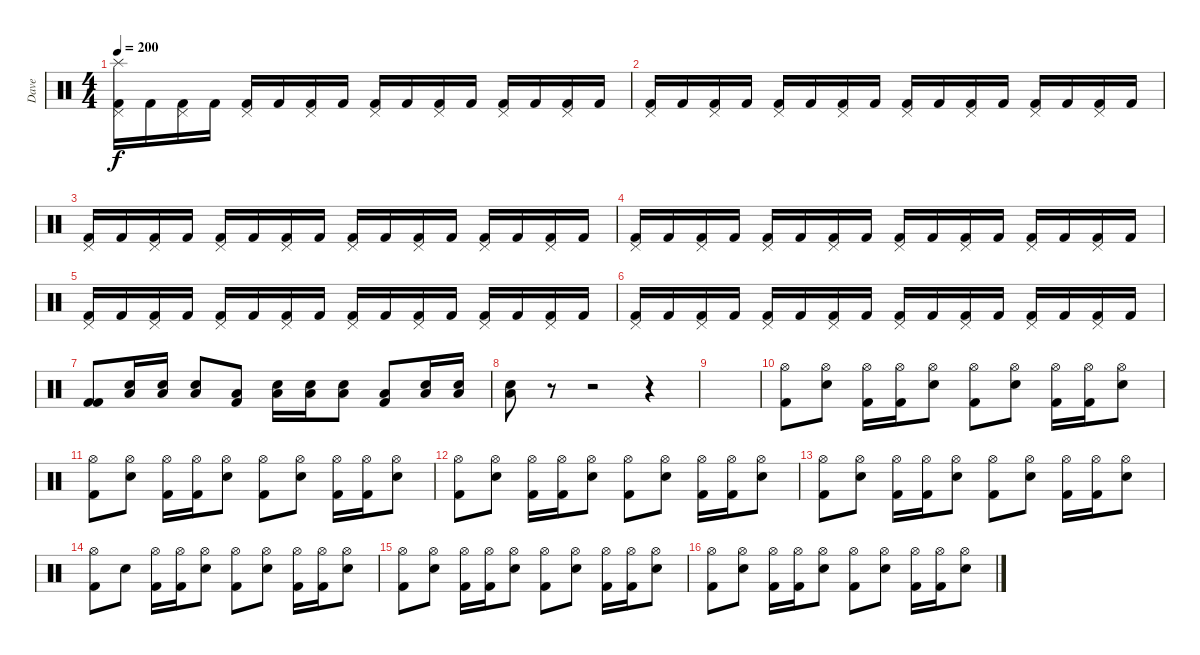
\track ("Dave" "Dave") {instrument percussion}
\staff {score}
\articulation defaults
\ts (4 4)
\tempo 200
\clef neutral
\ks c
("Splash (hit)" "Pedal Hi-Hat (hit)" "Kick (hit) 2").16{dy f} "Kick (hit) 2".16 ("Pedal Hi-Hat (hit)" "Kick (hit) 2").16 "Kick (hit) 2".16 ("Pedal Hi-Hat (hit)" "Kick (hit) 2").16 "Kick (hit) 2".16 ("Pedal Hi-Hat (hit)" "Kick (hit) 2").16 "Kick (hit) 2".16 ("Pedal Hi-Hat (hit)" "Kick (hit) 2").16 "Kick (hit) 2".16 ("Pedal Hi-Hat (hit)" "Kick (hit) 2").16 "Kick (hit) 2".16 ("Pedal Hi-Hat (hit)" "Kick (hit) 2").16 "Kick (hit) 2".16 ("Pedal Hi-Hat (hit)" "Kick (hit) 2").16 "Kick (hit) 2".16 |
("Pedal Hi-Hat (hit)" "Kick (hit) 2").16 "Kick (hit) 2".16 ("Pedal Hi-Hat (hit)" "Kick (hit) 2").16 "Kick (hit) 2".16 ("Pedal Hi-Hat (hit)" "Kick (hit) 2").16 "Kick (hit) 2".16 ("Pedal Hi-Hat (hit)" "Kick (hit) 2").16 "Kick (hit) 2".16 ("Pedal Hi-Hat (hit)" "Kick (hit) 2").16 "Kick (hit) 2".16 ("Pedal Hi-Hat (hit)" "Kick (hit) 2").16 "Kick (hit) 2".16 ("Pedal Hi-Hat (hit)" "Kick (hit) 2").16 "Kick (hit) 2".16 ("Pedal Hi-Hat (hit)" "Kick (hit) 2").16 "Kick (hit) 2".16 |
("Pedal Hi-Hat (hit)" "Kick (hit) 2").16 "Kick (hit) 2".16 ("Pedal Hi-Hat (hit)" "Kick (hit) 2").16 "Kick (hit) 2".16 ("Pedal Hi-Hat (hit)" "Kick (hit) 2").16 "Kick (hit) 2".16 ("Pedal Hi-Hat (hit)" "Kick (hit) 2").16 "Kick (hit) 2".16 ("Pedal Hi-Hat (hit)" "Kick (hit) 2").16 "Kick (hit) 2".16 ("Pedal Hi-Hat (hit)" "Kick (hit) 2").16 "Kick (hit) 2".16 ("Pedal Hi-Hat (hit)" "Kick (hit) 2").16 "Kick (hit) 2".16 ("Pedal Hi-Hat (hit)" "Kick (hit) 2").16 "Kick (hit) 2".16 |
("Pedal Hi-Hat (hit)" "Kick (hit) 2").16 "Kick (hit) 2".16 ("Pedal Hi-Hat (hit)" "Kick (hit) 2").16 "Kick (hit) 2".16 ("Pedal Hi-Hat (hit)" "Kick (hit) 2").16 "Kick (hit) 2".16 ("Pedal Hi-Hat (hit)" "Kick (hit) 2").16 "Kick (hit) 2".16 ("Pedal Hi-Hat (hit)" "Kick (hit) 2").16 "Kick (hit) 2".16 ("Pedal Hi-Hat (hit)" "Kick (hit) 2").16 "Kick (hit) 2".16 ("Pedal Hi-Hat (hit)" "Kick (hit) 2").16 "Kick (hit) 2".16 ("Pedal Hi-Hat (hit)" "Kick (hit) 2").16 "Kick (hit) 2".16 |
("Pedal Hi-Hat (hit)" "Kick (hit) 2").16 "Kick (hit) 2".16 ("Pedal Hi-Hat (hit)" "Kick (hit) 2").16 "Kick (hit) 2".16 ("Pedal Hi-Hat (hit)" "Kick (hit) 2").16 "Kick (hit) 2".16 ("Pedal Hi-Hat (hit)" "Kick (hit) 2").16 "Kick (hit) 2".16 ("Pedal Hi-Hat (hit)" "Kick (hit) 2").16 "Kick (hit) 2".16 ("Pedal Hi-Hat (hit)" "Kick (hit) 2").16 "Kick (hit) 2".16 ("Pedal Hi-Hat (hit)" "Kick (hit) 2").16 "Kick (hit) 2".16 ("Pedal Hi-Hat (hit)" "Kick (hit) 2").16 "Kick (hit) 2".16 |
("Pedal Hi-Hat (hit)" "Kick (hit) 2").16 "Kick (hit) 2".16 ("Pedal Hi-Hat (hit)" "Kick (hit) 2").16 "Kick (hit) 2".16 ("Pedal Hi-Hat (hit)" "Kick (hit) 2").16 "Kick (hit) 2".16 ("Pedal Hi-Hat (hit)" "Kick (hit) 2").16 "Kick (hit) 2".16 ("Pedal Hi-Hat (hit)" "Kick (hit) 2").16 "Kick (hit) 2".16 ("Pedal Hi-Hat (hit)" "Kick (hit) 2").16 "Kick (hit) 2".16 ("Pedal Hi-Hat (hit)" "Kick (hit) 2").16 "Kick (hit) 2".16 ("Pedal Hi-Hat (hit)" "Kick (hit) 2").16 "Kick (hit) 2".16 |
("Kick (hit) 2" "Kick (hit) 2").8 ("Snare (hit) 2" "Low Floor Tom (hit)").16 ("Snare (hit) 2" "Low Floor Tom (hit)").16 ("Snare (hit) 2" "Low Floor Tom (hit)").8 ("Kick (hit) 2" "Low Floor Tom (hit)").8 ("Snare (hit) 2" "Low Floor Tom (hit)").16 ("Snare (hit) 2" "Low Floor Tom (hit)").16 ("Snare (hit) 2" "Low Floor Tom (hit)").8 ("Kick (hit) 2" "Low Floor Tom (hit)").8 ("Snare (hit) 2" "Low Floor Tom (hit)").16 ("Snare (hit) 2" "Low Floor Tom (hit)").16 |
("Snare (hit) 2" "Low Floor Tom (hit)").8 r.8 r.2 r.4 |
|
\section ("" "")
("Hi-Hat (open)" "Kick (hit) 2").8 ("Hi-Hat (open)" "Snare (hit) 2").8 ("Hi-Hat (open)" "Kick (hit) 2").16 ("Hi-Hat (open)" "Kick (hit) 2").16 ("Hi-Hat (open)" "Snare (hit) 2").8 ("Hi-Hat (open)" "Kick (hit) 2").8 ("Hi-Hat (open)" "Snare (hit) 2").8 ("Hi-Hat (open)" "Kick (hit) 2").16 ("Hi-Hat (open)" "Kick (hit) 2").16 ("Hi-Hat (open)" "Snare (hit) 2").8 |
("Hi-Hat (open)" "Kick (hit) 2").8 ("Hi-Hat (open)" "Snare (hit) 2").8 ("Hi-Hat (open)" "Kick (hit) 2").16 ("Hi-Hat (open)" "Kick (hit) 2").16 ("Hi-Hat (open)" "Snare (hit) 2").8 ("Hi-Hat (open)" "Kick (hit) 2").8 ("Hi-Hat (open)" "Snare (hit) 2").8 ("Hi-Hat (open)" "Kick (hit) 2").16 ("Hi-Hat (open)" "Kick (hit) 2").16 ("Hi-Hat (open)" "Snare (hit) 2").8 |
("Hi-Hat (open)" "Kick (hit) 2").8 ("Hi-Hat (open)" "Snare (hit) 2").8 ("Hi-Hat (open)" "Kick (hit) 2").16 ("Hi-Hat (open)" "Kick (hit) 2").16 ("Hi-Hat (open)" "Snare (hit) 2").8 ("Hi-Hat (open)" "Kick (hit) 2").8 ("Hi-Hat (open)" "Snare (hit) 2").8 ("Hi-Hat (open)" "Kick (hit) 2").16 ("Hi-Hat (open)" "Kick (hit) 2").16 ("Hi-Hat (open)" "Snare (hit) 2").8 |
("Hi-Hat (open)" "Kick (hit) 2").8 ("Hi-Hat (open)" "Snare (hit) 2").8 ("Hi-Hat (open)" "Kick (hit) 2").16 ("Hi-Hat (open)" "Kick (hit) 2").16 ("Hi-Hat (open)" "Snare (hit) 2").8 ("Hi-Hat (open)" "Kick (hit) 2").8 ("Hi-Hat (open)" "Snare (hit) 2").8 ("Hi-Hat (open)" "Kick (hit) 2").16 ("Hi-Hat (open)" "Kick (hit) 2").16 ("Hi-Hat (open)" "Snare (hit) 2").8 |
("Hi-Hat (open)" "Kick (hit) 2").8 "Snare (hit) 2".8 ("Hi-Hat (open)" "Kick (hit) 2").16 ("Hi-Hat (open)" "Kick (hit) 2").16 ("Hi-Hat (open)" "Snare (hit) 2").8 ("Hi-Hat (open)" "Kick (hit) 2").8 ("Hi-Hat (open)" "Snare (hit) 2").8 ("Hi-Hat (open)" "Kick (hit) 2").16 ("Hi-Hat (open)" "Kick (hit) 2").16 ("Hi-Hat (open)" "Snare (hit) 2").8 |
("Hi-Hat (open)" "Kick (hit) 2").8 ("Hi-Hat (open)" "Snare (hit) 2").8 ("Hi-Hat (open)" "Kick (hit) 2").16 ("Hi-Hat (open)" "Kick (hit) 2").16 ("Hi-Hat (open)" "Snare (hit) 2").8 ("Hi-Hat (open)" "Kick (hit) 2").8 ("Hi-Hat (open)" "Snare (hit) 2").8 ("Hi-Hat (open)" "Kick (hit) 2").16 ("Hi-Hat (open)" "Kick (hit) 2").16 ("Hi-Hat (open)" "Snare (hit) 2").8 |
("Hi-Hat (open)" "Kick (hit) 2").8 ("Hi-Hat (open)" "Snare (hit) 2").8 ("Hi-Hat (open)" "Kick (hit) 2").16 ("Hi-Hat (open)" "Kick (hit) 2").16 ("Hi-Hat (open)" "Snare (hit) 2").8 ("Hi-Hat (open)" "Kick (hit) 2").8 ("Hi-Hat (open)" "Snare (hit) 2").8 ("Hi-Hat (open)" "Kick (hit) 2").16 ("Hi-Hat (open)" "Kick (hit) 2").16 ("Hi-Hat (open)" "Snare (hit) 2").8
